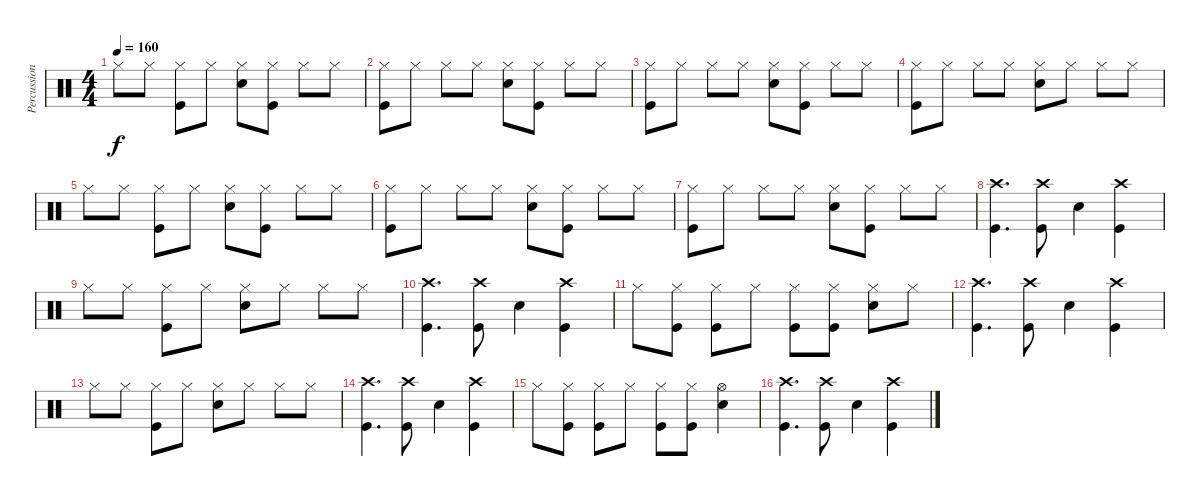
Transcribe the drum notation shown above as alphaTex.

\track ("Percussion" "Percussion") {instrument percussion}
\staff {score}
\articulation defaults
\ts (4 4)
\tempo 160
\clef neutral
\ks c "Hi-Hat (closed)".8{dy f} "Hi-Hat (closed)".8
("Hi-Hat (closed)" "Kick (hit)").8 "Hi-Hat (closed)".8 ("Hi-Hat (closed)" "Snare (hit) 2").8 ("Hi-Hat (closed)" "Kick (hit)").8 "Hi-Hat (closed)".8 "Hi-Hat (closed)".8 |
("Hi-Hat (closed)" "Kick (hit)").8 "Hi-Hat (closed)".8 "Hi-Hat (closed)".8 "Hi-Hat (closed)".8 ("Hi-Hat (closed)" "Snare (hit) 2").8 ("Hi-Hat (closed)" "Kick (hit)").8 "Hi-Hat (closed)".8 "Hi-Hat (closed)".8 |
("Hi-Hat (closed)" "Kick (hit)").8 "Hi-Hat (closed)".8 "Hi-Hat (closed)".8 "Hi-Hat (closed)".8 ("Hi-Hat (closed)" "Snare (hit) 2").8 ("Hi-Hat (closed)" "Kick (hit)").8 "Hi-Hat (closed)".8 "Hi-Hat (closed)".8 |
("Hi-Hat (closed)" "Kick (hit)").8 "Hi-Hat (closed)".8 "Hi-Hat (closed)".8 "Hi-Hat (closed)".8 ("Hi-Hat (closed)" "Snare (hit) 2").8 "Hi-Hat (closed)".8 "Hi-Hat (closed)".8 "Hi-Hat (closed)".8 |
"Hi-Hat (closed)".8 "Hi-Hat (closed)".8 ("Hi-Hat (closed)" "Kick (hit)").8 "Hi-Hat (closed)".8 ("Hi-Hat (closed)" "Snare (hit) 2").8 ("Hi-Hat (closed)" "Kick (hit)").8 "Hi-Hat (closed)".8 "Hi-Hat (closed)".8 |
("Hi-Hat (closed)" "Kick (hit)").8 "Hi-Hat (closed)".8 "Hi-Hat (closed)".8 "Hi-Hat (closed)".8 ("Hi-Hat (closed)" "Snare (hit) 2").8 ("Hi-Hat (closed)" "Kick (hit)").8 "Hi-Hat (closed)".8 "Hi-Hat (closed)".8 |
("Hi-Hat (closed)" "Kick (hit)").8 "Hi-Hat (closed)".8 "Hi-Hat (closed)".8 "Hi-Hat (closed)".8 ("Hi-Hat (closed)" "Snare (hit) 2").8 ("Hi-Hat (closed)" "Kick (hit)").8 "Hi-Hat (closed)".8 "Hi-Hat (closed)".8 |
("Crash high (hit)" "Kick (hit)").4{d} ("Crash high (hit)" "Kick (hit)").8 "Snare (hit) 2".4 ("Crash high (hit)" "Kick (hit)").4 |
"Hi-Hat (closed)".8 "Hi-Hat (closed)".8 ("Hi-Hat (closed)" "Kick (hit)").8 "Hi-Hat (closed)".8 ("Hi-Hat (closed)" "Snare (hit) 2").8 "Hi-Hat (closed)".8 "Hi-Hat (closed)".8 "Hi-Hat (closed)".8 |
("Crash high (hit)" "Kick (hit)").4{d} ("Crash high (hit)" "Kick (hit)").8 "Snare (hit) 2".4 ("Crash high (hit)" "Kick (hit)").4 |
"Hi-Hat (closed)".8 ("Hi-Hat (closed)" "Kick (hit)").8 ("Hi-Hat (closed)" "Kick (hit)").8 "Hi-Hat (closed)".8 ("Hi-Hat (closed)" "Kick (hit)").8 ("Hi-Hat (closed)" "Kick (hit)").8 ("Hi-Hat (closed)" "Snare (hit) 2").8 "Hi-Hat (closed)".8 |
("Crash high (hit)" "Kick (hit)").4{d} ("Crash high (hit)" "Kick (hit)").8 "Snare (hit) 2".4 ("Crash high (hit)" "Kick (hit)").4 |
"Hi-Hat (closed)".8 "Hi-Hat (closed)".8 ("Hi-Hat (closed)" "Kick (hit)").8 "Hi-Hat (closed)".8 ("Hi-Hat (closed)" "Snare (hit) 2").8 "Hi-Hat (closed)".8 "Hi-Hat (closed)".8 "Hi-Hat (closed)".8 |
("Crash high (hit)" "Kick (hit)").4{d} ("Crash high (hit)" "Kick (hit)").8 "Snare (hit) 2".4 ("Crash high (hit)" "Kick (hit)").4 |
"Hi-Hat (closed)".8 ("Hi-Hat (closed)" "Kick (hit)").8 ("Hi-Hat (closed)" "Kick (hit)").8 "Hi-Hat (closed)".8 ("Hi-Hat (closed)" "Kick (hit)").8 ("Hi-Hat (closed)" "Kick (hit)").8 ("Hi-Hat (open)" "Snare (hit) 2").4 |
("Crash high (hit)" "Kick (hit)").4{d} ("Crash high (hit)" "Kick (hit)").8 "Snare (hit) 2".4 ("Crash high (hit)" "Kick (hit)").4
